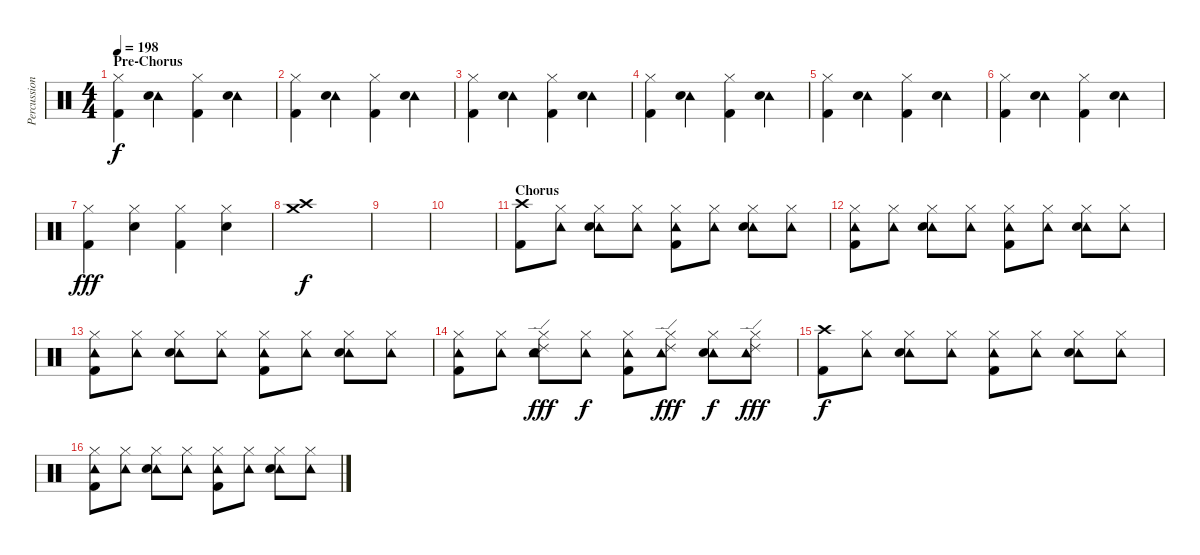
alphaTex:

\track ("Percussion" "Percussion") {instrument percussion}
\staff {score}
\articulation defaults
\ts (4 4)
\section ("" "Pre-Chorus")
\tempo 198
\clef neutral
\ks c
("Hi-Hat (closed)" "Kick (hit) 2").4{dy f} ("Tambourine (hit)" "Electric Snare (hit)").4 ("Hi-Hat (closed)" "Kick (hit) 2").4 ("Tambourine (hit)" "Electric Snare (hit)").4 |
("Hi-Hat (closed)" "Kick (hit) 2").4 ("Tambourine (hit)" "Electric Snare (hit)").4 ("Hi-Hat (closed)" "Kick (hit) 2").4 ("Tambourine (hit)" "Electric Snare (hit)").4 |
("Hi-Hat (closed)" "Kick (hit) 2").4 ("Tambourine (hit)" "Electric Snare (hit)").4 ("Hi-Hat (closed)" "Kick (hit) 2").4 ("Tambourine (hit)" "Electric Snare (hit)").4 |
("Hi-Hat (closed)" "Kick (hit) 2").4 ("Tambourine (hit)" "Electric Snare (hit)").4 ("Hi-Hat (closed)" "Kick (hit) 2").4 ("Tambourine (hit)" "Electric Snare (hit)").4 |
("Hi-Hat (closed)" "Kick (hit) 2").4 ("Tambourine (hit)" "Electric Snare (hit)").4 ("Hi-Hat (closed)" "Kick (hit) 2").4 ("Tambourine (hit)" "Electric Snare (hit)").4 |
("Hi-Hat (closed)" "Kick (hit) 2").4 ("Tambourine (hit)" "Electric Snare (hit)").4 ("Hi-Hat (closed)" "Kick (hit) 2").4 ("Tambourine (hit)" "Electric Snare (hit)").4 |
("Hi-Hat (closed)" "Kick (hit) 2").4{dy fff} ("Hi-Hat (closed)" "Electric Snare (hit)").4 ("Hi-Hat (closed)" "Kick (hit) 2").4 ("Hi-Hat (closed)" "Electric Snare (hit)").4 |
("Crash high (hit)" "Crash medium (hit)").1{dy f} |
|
|
\section ("" "Chorus")
("Crash high (hit)" "Kick (hit) 2").8 ("Tambourine (hit)" "Hi-Hat (closed)").8 ("Tambourine (hit)" "Hi-Hat (closed)" "Electric Snare (hit)").8 ("Tambourine (hit)" "Hi-Hat (closed)").8 ("Tambourine (hit)" "Hi-Hat (closed)" "Kick (hit) 2").8 ("Tambourine (hit)" "Hi-Hat (closed)").8 ("Tambourine (hit)" "Hi-Hat (closed)" "Electric Snare (hit)").8 ("Tambourine (hit)" "Hi-Hat (closed)").8 |
("Tambourine (hit)" "Hi-Hat (closed)" "Kick (hit) 2").8 ("Tambourine (hit)" "Hi-Hat (closed)").8 ("Tambourine (hit)" "Hi-Hat (closed)" "Electric Snare (hit)").8 ("Tambourine (hit)" "Hi-Hat (closed)").8 ("Tambourine (hit)" "Hi-Hat (closed)" "Kick (hit) 2").8 ("Tambourine (hit)" "Hi-Hat (closed)").8 ("Tambourine (hit)" "Hi-Hat (closed)" "Electric Snare (hit)").8 ("Tambourine (hit)" "Hi-Hat (closed)").8 |
("Tambourine (hit)" "Hi-Hat (closed)" "Kick (hit) 2").8 ("Tambourine (hit)" "Hi-Hat (closed)").8 ("Tambourine (hit)" "Hi-Hat (closed)" "Electric Snare (hit)").8 ("Tambourine (hit)" "Hi-Hat (closed)").8 ("Tambourine (hit)" "Hi-Hat (closed)" "Kick (hit) 2").8 ("Tambourine (hit)" "Hi-Hat (closed)").8 ("Tambourine (hit)" "Hi-Hat (closed)" "Electric Snare (hit)").8 ("Tambourine (hit)" "Hi-Hat (closed)").8 |
("Tambourine (hit)" "Hi-Hat (closed)" "Kick (hit) 2").8 ("Tambourine (hit)" "Hi-Hat (closed)").8 ("Ride (edge) 2" "Tambourine (hit)" "Hi-Hat (closed)" "Electric Snare (hit)").8{dy fff} ("Tambourine (hit)" "Hi-Hat (closed)").8{dy f} ("Tambourine (hit)" "Hi-Hat (closed)" "Kick (hit) 2").8 ("Ride (edge) 2" "Tambourine (hit)" "Hi-Hat (closed)").8{dy fff} ("Tambourine (hit)" "Hi-Hat (closed)" "Electric Snare (hit)").8{dy f} ("Ride (edge) 2" "Tambourine (hit)" "Hi-Hat (closed)").8{dy fff} |
("Crash high (hit)" "Kick (hit) 2").8{dy f} ("Tambourine (hit)" "Hi-Hat (closed)").8 ("Tambourine (hit)" "Hi-Hat (closed)" "Electric Snare (hit)").8 ("Tambourine (hit)" "Hi-Hat (closed)").8 ("Tambourine (hit)" "Hi-Hat (closed)" "Kick (hit) 2").8 ("Tambourine (hit)" "Hi-Hat (closed)").8 ("Tambourine (hit)" "Hi-Hat (closed)" "Electric Snare (hit)").8 ("Tambourine (hit)" "Hi-Hat (closed)").8 |
("Tambourine (hit)" "Hi-Hat (closed)" "Kick (hit) 2").8 ("Tambourine (hit)" "Hi-Hat (closed)").8 ("Tambourine (hit)" "Hi-Hat (closed)" "Electric Snare (hit)").8 ("Tambourine (hit)" "Hi-Hat (closed)").8 ("Tambourine (hit)" "Hi-Hat (closed)" "Kick (hit) 2").8 ("Tambourine (hit)" "Hi-Hat (closed)").8 ("Tambourine (hit)" "Hi-Hat (closed)" "Electric Snare (hit)").8 ("Tambourine (hit)" "Hi-Hat (closed)").8
